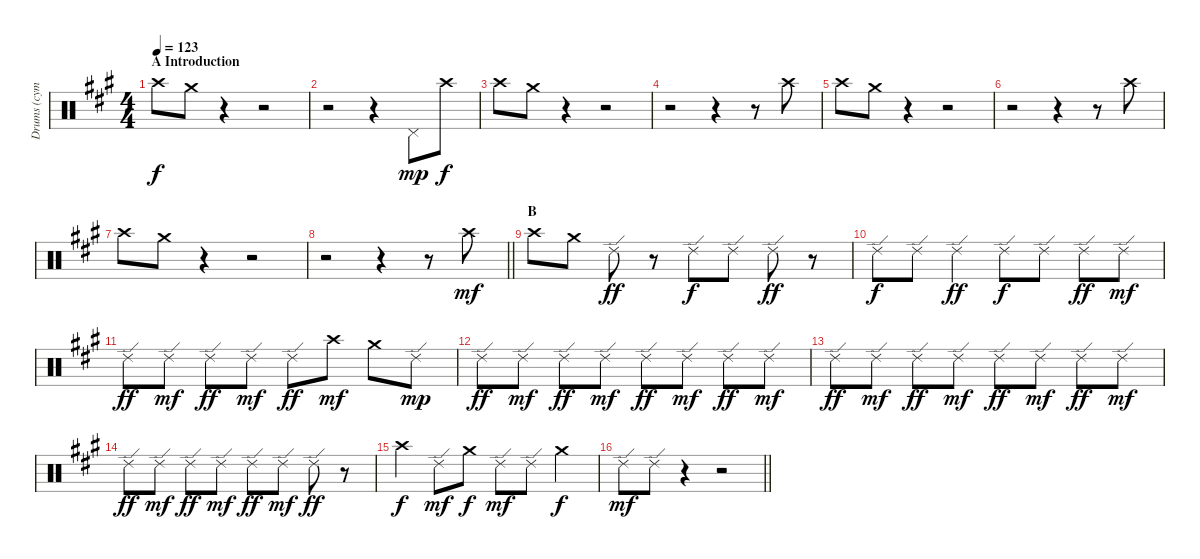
\track ("Drums (cymbals)" "Drums (cym") {instrument percussion}
\staff {score}
\articulation defaults
\ts (4 4)
\section ("" "A Introduction")
\tempo 123
\clef neutral
\ks a "Crash high (hit)".8{dy f} "Crash medium (hit)".8
r.4 r.2 |
r.2 r.4 "Pedal Hi-Hat (hit)".8{dy mp} "Crash high (hit)".8{dy f} |
"Crash high (hit)".8 "Crash medium (hit)".8 r.4 r.2 |
r.2 r.4 r.8 "Crash high (hit)".8 |
"Crash high (hit)".8 "Crash medium (hit)".8 r.4 r.2 |
r.2 r.4 r.8 "Crash high (hit)".8 |
"Crash high (hit)".8 "Crash medium (hit)".8 r.4 r.2 |
\barLineRight lightlight
r.2 r.4 r.8 "Crash high (hit)".8{dy mf} |
\section ("" "B")
"Crash high (hit)".8 "Crash medium (hit)".8 "Ride (edge) 2".8{dy ff} r.8 "Ride (edge) 2".8{dy f} "Ride (edge) 2".8 "Ride (edge) 2".8{dy ff} r.8 |
"Ride (edge) 2".8{dy f} "Ride (edge) 2".8 "Ride (edge) 2".4{dy ff} "Ride (edge) 2".8{dy f} "Ride (edge) 2".8 "Ride (edge) 2".8{dy ff} "Ride (edge) 2".8{dy mf} |
"Ride (edge) 2".8{dy ff} "Ride (edge) 2".8{dy mf} "Ride (edge) 2".8{dy ff} "Ride (edge) 2".8{dy mf} "Ride (edge) 2".8{dy ff} "Crash high (hit)".8{dy mf} "Crash medium (hit)".8 "Ride (edge) 2".8{dy mp} |
"Ride (edge) 2".8{dy ff} "Ride (edge) 2".8{dy mf} "Ride (edge) 2".8{dy ff} "Ride (edge) 2".8{dy mf} "Ride (edge) 2".8{dy ff} "Ride (edge) 2".8{dy mf} "Ride (edge) 2".8{dy ff} "Ride (edge) 2".8{dy mf} |
"Ride (edge) 2".8{dy ff} "Ride (edge) 2".8{dy mf} "Ride (edge) 2".8{dy ff} "Ride (edge) 2".8{dy mf} "Ride (edge) 2".8{dy ff} "Ride (edge) 2".8{dy mf} "Ride (edge) 2".8{dy ff} "Ride (edge) 2".8{dy mf} |
"Ride (edge) 2".8{dy ff} "Ride (edge) 2".8{dy mf} "Ride (edge) 2".8{dy ff} "Ride (edge) 2".8{dy mf} "Ride (edge) 2".8{dy ff} "Ride (edge) 2".8{dy mf} "Ride (edge) 2".8{dy ff} r.8 |
"Crash high (hit)".4{dy f} "Ride (edge) 2".8{dy mf} "Crash medium (hit)".8{dy f} "Ride (edge) 2".8{dy mf} "Ride (edge) 2".8 "Crash medium (hit)".4{dy f} |
\barLineRight lightlight "Ride (edge) 2".8{dy mf} "Ride (edge) 2".8
r.4 r.2
